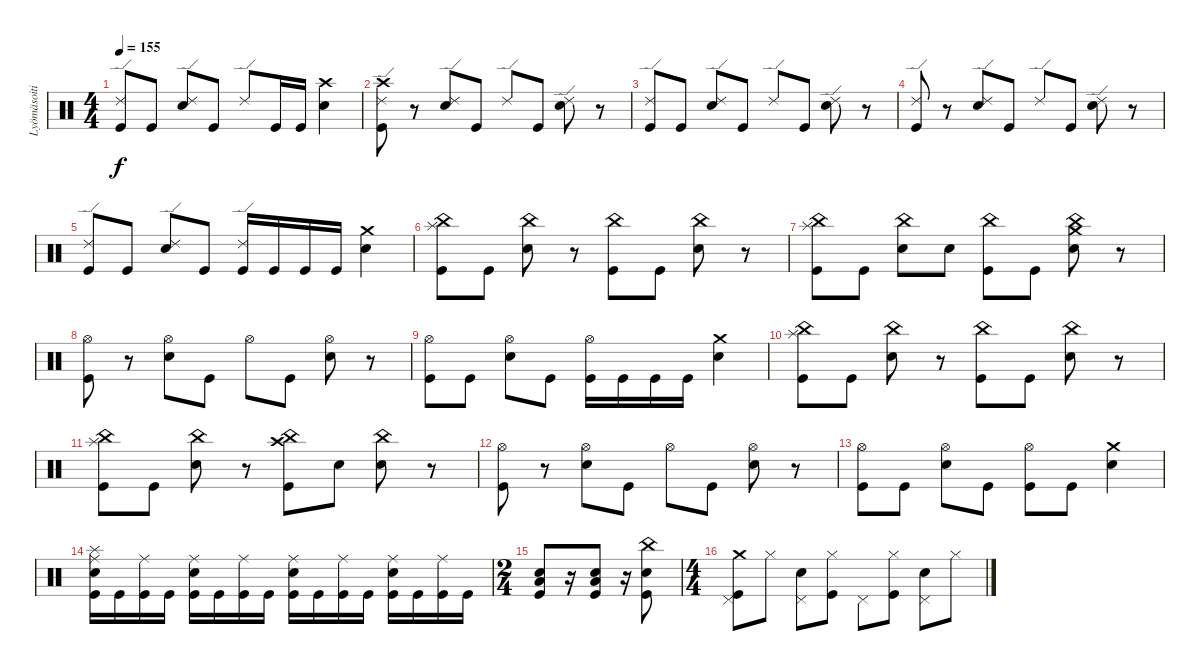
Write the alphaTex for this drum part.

\track ("Lyömäsoitin" "Lyömäsoiti") {instrument percussion}
\staff {score}
\articulation defaults
\ts (4 4)
\tempo 155
\clef neutral
\ks c
("Ride (edge) 2" "Kick (hit)").8{dy f} "Kick (hit)".8 ("Ride (edge) 2" "Snare (hit) 2").8 "Kick (hit)".8 "Ride (edge) 2".8 "Kick (hit)".16 "Kick (hit)".16 ("Crash high (hit)" "Snare (hit) 2").4 |
("Crash high (hit)" "Ride (edge) 2" "Kick (hit)").8 r.8 ("Ride (edge) 2" "Snare (hit) 2").8 "Kick (hit)".8 "Ride (edge) 2".8 "Kick (hit)".8 ("Ride (edge) 2" "Snare (hit) 2").8 r.8 |
("Ride (edge) 2" "Kick (hit)").8 "Kick (hit)".8 ("Ride (edge) 2" "Snare (hit) 2").8 "Kick (hit)".8 "Ride (edge) 2".8 "Kick (hit)".8 ("Ride (edge) 2" "Snare (hit) 2").8 r.8 |
("Ride (edge) 2" "Kick (hit)").8 r.8 ("Ride (edge) 2" "Snare (hit) 2").8 "Kick (hit)".8 "Ride (edge) 2".8 "Kick (hit)".8 ("Ride (edge) 2" "Snare (hit) 2").8 r.8 |
("Ride (edge) 2" "Kick (hit)").8 "Kick (hit)".8 ("Ride (edge) 2" "Snare (hit) 2").8 "Kick (hit)".8 ("Ride (edge) 2" "Kick (hit)").16 "Kick (hit)".16 "Kick (hit)".16 "Kick (hit)".16 ("Crash medium (hit)" "Snare (hit) 2").4 |
("Splash (hit)" "China (hit)" "Kick (hit)").8 "Kick (hit)".8 ("China (hit)" "Snare (hit) 2").8 r.8 ("China (hit)" "Kick (hit)").8 "Kick (hit)".8 ("China (hit)" "Snare (hit) 2").8 r.8 |
("Splash (hit)" "China (hit)" "Kick (hit)").8 "Kick (hit)".8 ("China (hit)" "Snare (hit) 2").8 "Snare (hit) 2".8 ("China (hit)" "Kick (hit)").8 "Kick (hit)".8 ("Crash medium (hit)" "China (hit)" "Snare (hit) 2").8 r.8 |
("Hi-Hat (open)" "Kick (hit)").8 r.8 ("Hi-Hat (open)" "Snare (hit) 2").8 "Kick (hit)".8 "Hi-Hat (open)".8 "Kick (hit)".8 ("Hi-Hat (open)" "Snare (hit) 2").8 r.8 |
("Hi-Hat (open)" "Kick (hit)").8 "Kick (hit)".8 ("Hi-Hat (open)" "Snare (hit) 2").8 "Kick (hit)".8 ("Hi-Hat (open)" "Kick (hit)").16 "Kick (hit)".16 "Kick (hit)".16 "Kick (hit)".16 ("Crash medium (hit)" "Snare (hit) 2").4 |
("Splash (hit)" "China (hit)" "Kick (hit)").8 "Kick (hit)".8 ("China (hit)" "Snare (hit) 2").8 r.8 ("China (hit)" "Kick (hit)").8 "Kick (hit)".8 ("China (hit)" "Snare (hit) 2").8 r.8 |
("Splash (hit)" "China (hit)" "Kick (hit)").8 "Kick (hit)".8 ("China (hit)" "Snare (hit) 2").8 r.8 ("Crash high (hit)" "China (hit)" "Kick (hit)").8 "Snare (hit) 2".8 ("China (hit)" "Snare (hit) 2").8 r.8 |
("Hi-Hat (open)" "Kick (hit)").8 r.8 ("Hi-Hat (open)" "Snare (hit) 2").8 "Kick (hit)".8 "Hi-Hat (open)".8 "Kick (hit)".8 ("Hi-Hat (open)" "Snare (hit) 2").8 r.8 |
("Hi-Hat (open)" "Kick (hit)").8 "Kick (hit)".8 ("Hi-Hat (open)" "Snare (hit) 2").8 "Kick (hit)".8 ("Hi-Hat (open)" "Kick (hit)").8 "Kick (hit)".8 ("Crash medium (hit)" "Snare (hit) 2").4 |
("Splash (hit)" "Ride (middle)" "Snare (hit) 2" "Kick (hit)").16 "Kick (hit)".16 ("Ride (middle)" "Kick (hit)").16 "Kick (hit)".16 ("Ride (middle)" "Snare (hit) 2" "Kick (hit)").16 "Kick (hit)".16 ("Ride (middle)" "Kick (hit)").16 "Kick (hit)".16 ("Ride (middle)" "Snare (hit) 2" "Kick (hit)").16 "Kick (hit)".16 ("Ride (middle)" "Kick (hit)").16 "Kick (hit)".16 ("Ride (middle)" "Snare (hit) 2" "Kick (hit)").16 "Kick (hit)".16 ("Ride (middle)" "Kick (hit)").16 "Kick (hit)".16 |
\ts (2 4)
("Kick (hit)" "Low Tom (hit)" "Snare (hit) 2").8 r.16 ("Kick (hit)" "Low Tom (hit)" "Snare (hit) 2").8 r.16 ("Kick (hit)" "China (hit)" "Snare (hit) 2").8 |
\ts (4 4)
("Crash medium (hit)" "Pedal Hi-Hat (hit)" "Kick (hit)").8 "Hi-Hat (closed)".8 ("Pedal Hi-Hat (hit)" "Snare (hit) 2").8 ("Hi-Hat (closed)" "Kick (hit)").8 "Pedal Hi-Hat (hit)".8 ("Hi-Hat (closed)" "Kick (hit)").8 ("Pedal Hi-Hat (hit)" "Snare (hit) 2").8 "Hi-Hat (closed)".8
